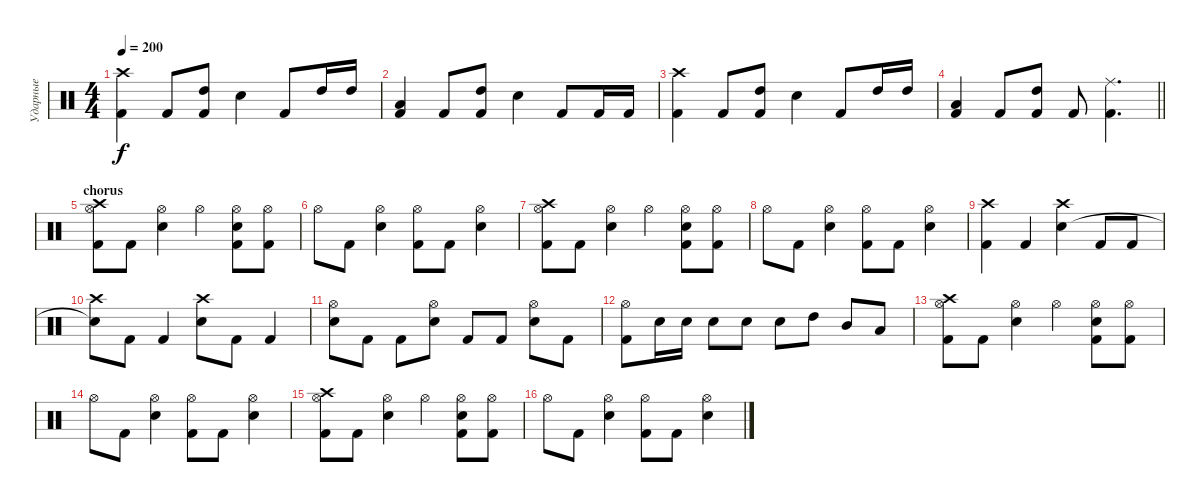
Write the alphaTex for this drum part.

\track ("Ударные" "Ударные") {instrument percussion}
\staff {score}
\articulation defaults
\ts (4 4)
\tempo 200
\clef neutral
\ks c
("Crash high (hit)" "Kick (hit) 2").4{dy f} "Kick (hit) 2".8 ("High Tom (hit)" "Kick (hit) 2").8 "Electric Snare (hit)".4 "Kick (hit) 2".8 "High Tom (hit)".16 "High Tom (hit)".16 |
("Low Tom (hit)" "Kick (hit) 2").4 "Kick (hit) 2".8 ("High Tom (hit)" "Kick (hit) 2").8 "Electric Snare (hit)".4 "Kick (hit) 2".8 "Kick (hit) 2".16 "Kick (hit) 2".16 |
("Crash high (hit)" "Kick (hit) 2").4 "Kick (hit) 2".8 ("High Tom (hit)" "Kick (hit) 2").8 "Electric Snare (hit)".4 "Kick (hit) 2".8 "High Tom (hit)".16 "High Tom (hit)".16 |
\barLineRight lightlight
("Low Tom (hit)" "Kick (hit) 2").4 "Kick (hit) 2".8 ("High Tom (hit)" "Kick (hit) 2").8 "Kick (hit) 2".8 ("Ride (middle)" "Kick (hit) 2").4{d} |
\section ("" "chorus")
("Crash high (hit)" "Hi-Hat (open)" "Kick (hit) 2").8 "Kick (hit) 2".8 ("Hi-Hat (open)" "Electric Snare (hit)").4 "Hi-Hat (open)".4 ("Hi-Hat (open)" "Electric Snare (hit)" "Kick (hit) 2").8 ("Hi-Hat (open)" "Kick (hit) 2").8 |
"Hi-Hat (open)".8 "Kick (hit) 2".8 ("Hi-Hat (open)" "Electric Snare (hit)").4 ("Hi-Hat (open)" "Kick (hit) 2").8 "Kick (hit) 2".8 ("Hi-Hat (open)" "Electric Snare (hit)").4 |
("Hi-Hat (open)" "Crash high (hit)" "Kick (hit) 2").8 "Kick (hit) 2".8 ("Hi-Hat (open)" "Electric Snare (hit)").4 "Hi-Hat (open)".4 ("Hi-Hat (open)" "Electric Snare (hit)" "Kick (hit) 2").8 ("Hi-Hat (open)" "Kick (hit) 2").8 |
"Hi-Hat (open)".8 "Kick (hit) 2".8 ("Hi-Hat (open)" "Electric Snare (hit)").4 ("Hi-Hat (open)" "Kick (hit) 2").8 "Kick (hit) 2".8 ("Hi-Hat (open)" "Electric Snare (hit)").4 |
("Crash high (hit)" "Kick (hit) 2").4 "Kick (hit) 2".4 ("Crash high (hit)" "Electric Snare (hit)").4 "Kick (hit) 2".8 "Kick (hit) 2".8 |
("Crash high (hit)" "Snare (hit)"{t}).8 "Kick (hit) 2".8 "Kick (hit) 2".4 ("Crash high (hit)" "Electric Snare (hit)").8 "Kick (hit) 2".8 "Kick (hit) 2".4 |
("Hi-Hat (open)" "Electric Snare (hit)").8 "Kick (hit) 2".8 "Kick (hit) 2".8 ("Hi-Hat (open)" "Electric Snare (hit)").8 "Kick (hit) 2".8 "Kick (hit) 2".8 ("Hi-Hat (open)" "Electric Snare (hit)").8 "Kick (hit) 2".8 |
("Hi-Hat (open)" "Kick (hit) 2").8 "Electric Snare (hit)".16 "Electric Snare (hit)".16 "Electric Snare (hit)".8 "Electric Snare (hit)".8 "Electric Snare (hit)".8 "High Tom (hit)".8 "Mid Tom (hit)".8 "Low Tom (hit)".8 |
("Crash high (hit)" "Hi-Hat (open)" "Kick (hit) 2").8 "Kick (hit) 2".8 ("Hi-Hat (open)" "Electric Snare (hit)").4 "Hi-Hat (open)".4 ("Hi-Hat (open)" "Electric Snare (hit)" "Kick (hit) 2").8 ("Hi-Hat (open)" "Kick (hit) 2").8 |
"Hi-Hat (open)".8 "Kick (hit) 2".8 ("Hi-Hat (open)" "Electric Snare (hit)").4 ("Hi-Hat (open)" "Kick (hit) 2").8 "Kick (hit) 2".8 ("Hi-Hat (open)" "Electric Snare (hit)").4 |
("Hi-Hat (open)" "Crash high (hit)" "Kick (hit) 2").8 "Kick (hit) 2".8 ("Hi-Hat (open)" "Electric Snare (hit)").4 "Hi-Hat (open)".4 ("Hi-Hat (open)" "Electric Snare (hit)" "Kick (hit) 2").8 ("Hi-Hat (open)" "Kick (hit) 2").8 |
"Hi-Hat (open)".8 "Kick (hit) 2".8 ("Hi-Hat (open)" "Electric Snare (hit)").4 ("Hi-Hat (open)" "Kick (hit) 2").8 "Kick (hit) 2".8 ("Hi-Hat (open)" "Electric Snare (hit)").4
